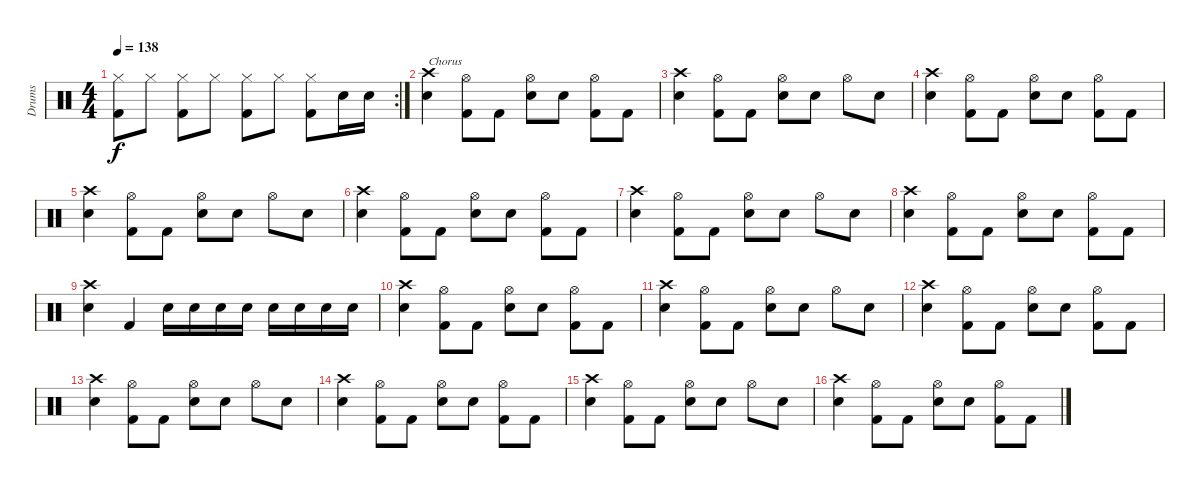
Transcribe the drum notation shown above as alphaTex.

\track ("Drums" "Drums") {instrument percussion}
\staff {score}
\articulation defaults
\rc 2
\ts (4 4)
\tempo 138
\clef neutral
\ks c
("Hi-Hat (closed)" "Kick (hit) 2").8{dy f} "Hi-Hat (closed)".8 ("Hi-Hat (closed)" "Kick (hit) 2").8 "Hi-Hat (closed)".8 ("Hi-Hat (closed)" "Kick (hit) 2").8 "Hi-Hat (closed)".8 ("Hi-Hat (closed)" "Kick (hit) 2").8 "Electric Snare (hit)".16 "Electric Snare (hit)".16 |
("Electric Snare (hit)" "Crash high (hit)").4{txt "Chorus"} ("Kick (hit) 2" "Hi-Hat (open)").8 "Kick (hit) 2".8 ("Electric Snare (hit)" "Hi-Hat (open)").8 "Electric Snare (hit)".8 ("Kick (hit) 2" "Hi-Hat (open)").8 "Kick (hit) 2".8 |
("Electric Snare (hit)" "Crash high (hit)").4 ("Kick (hit) 2" "Hi-Hat (open)").8 "Kick (hit) 2".8 ("Electric Snare (hit)" "Hi-Hat (open)").8 "Electric Snare (hit)".8 "Hi-Hat (open)".8 "Electric Snare (hit)".8 |
("Electric Snare (hit)" "Crash high (hit)").4 ("Kick (hit) 2" "Hi-Hat (open)").8 "Kick (hit) 2".8 ("Electric Snare (hit)" "Hi-Hat (open)").8 "Electric Snare (hit)".8 ("Kick (hit) 2" "Hi-Hat (open)").8 "Kick (hit) 2".8 |
("Electric Snare (hit)" "Crash high (hit)").4 ("Kick (hit) 2" "Hi-Hat (open)").8 "Kick (hit) 2".8 ("Electric Snare (hit)" "Hi-Hat (open)").8 "Electric Snare (hit)".8 "Hi-Hat (open)".8 "Electric Snare (hit)".8 |
("Electric Snare (hit)" "Crash high (hit)").4 ("Kick (hit) 2" "Hi-Hat (open)").8 "Kick (hit) 2".8 ("Electric Snare (hit)" "Hi-Hat (open)").8 "Electric Snare (hit)".8 ("Kick (hit) 2" "Hi-Hat (open)").8 "Kick (hit) 2".8 |
("Electric Snare (hit)" "Crash high (hit)").4 ("Kick (hit) 2" "Hi-Hat (open)").8 "Kick (hit) 2".8 ("Electric Snare (hit)" "Hi-Hat (open)").8 "Electric Snare (hit)".8 "Hi-Hat (open)".8 "Electric Snare (hit)".8 |
("Electric Snare (hit)" "Crash high (hit)").4 ("Kick (hit) 2" "Hi-Hat (open)").8 "Kick (hit) 2".8 ("Electric Snare (hit)" "Hi-Hat (open)").8 "Electric Snare (hit)".8 ("Kick (hit) 2" "Hi-Hat (open)").8 "Kick (hit) 2".8 |
("Electric Snare (hit)" "Crash high (hit)").4 "Kick (hit) 2".4 "Electric Snare (hit)".16 "Electric Snare (hit)".16 "Electric Snare (hit)".16 "Electric Snare (hit)".16 "Electric Snare (hit)".16 "Electric Snare (hit)".16 "Electric Snare (hit)".16 "Electric Snare (hit)".16 |
("Electric Snare (hit)" "Crash high (hit)").4 ("Kick (hit) 2" "Hi-Hat (open)").8 "Kick (hit) 2".8 ("Electric Snare (hit)" "Hi-Hat (open)").8 "Electric Snare (hit)".8 ("Kick (hit) 2" "Hi-Hat (open)").8 "Kick (hit) 2".8 |
("Electric Snare (hit)" "Crash high (hit)").4 ("Kick (hit) 2" "Hi-Hat (open)").8 "Kick (hit) 2".8 ("Electric Snare (hit)" "Hi-Hat (open)").8 "Electric Snare (hit)".8 "Hi-Hat (open)".8 "Electric Snare (hit)".8 |
("Electric Snare (hit)" "Crash high (hit)").4 ("Kick (hit) 2" "Hi-Hat (open)").8 "Kick (hit) 2".8 ("Electric Snare (hit)" "Hi-Hat (open)").8 "Electric Snare (hit)".8 ("Kick (hit) 2" "Hi-Hat (open)").8 "Kick (hit) 2".8 |
("Electric Snare (hit)" "Crash high (hit)").4 ("Kick (hit) 2" "Hi-Hat (open)").8 "Kick (hit) 2".8 ("Electric Snare (hit)" "Hi-Hat (open)").8 "Electric Snare (hit)".8 "Hi-Hat (open)".8 "Electric Snare (hit)".8 |
("Electric Snare (hit)" "Crash high (hit)").4 ("Kick (hit) 2" "Hi-Hat (open)").8 "Kick (hit) 2".8 ("Electric Snare (hit)" "Hi-Hat (open)").8 "Electric Snare (hit)".8 ("Kick (hit) 2" "Hi-Hat (open)").8 "Kick (hit) 2".8 |
("Electric Snare (hit)" "Crash high (hit)").4 ("Kick (hit) 2" "Hi-Hat (open)").8 "Kick (hit) 2".8 ("Electric Snare (hit)" "Hi-Hat (open)").8 "Electric Snare (hit)".8 "Hi-Hat (open)".8 "Electric Snare (hit)".8 |
("Electric Snare (hit)" "Crash high (hit)").4 ("Kick (hit) 2" "Hi-Hat (open)").8 "Kick (hit) 2".8 ("Electric Snare (hit)" "Hi-Hat (open)").8 "Electric Snare (hit)".8 ("Kick (hit) 2" "Hi-Hat (open)").8 "Kick (hit) 2".8
